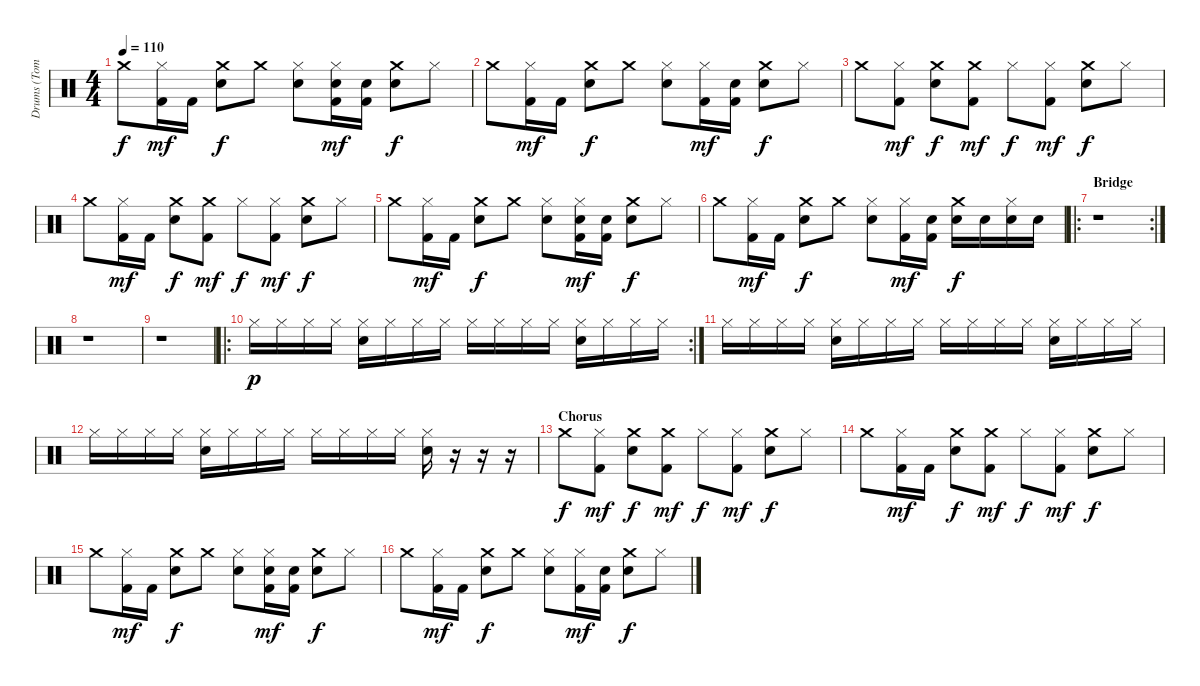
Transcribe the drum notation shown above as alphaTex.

\track ("Drums (Tomate)" "Drums (Tom") {instrument percussion}
\staff {score}
\articulation defaults
\ts (4 4)
\tempo 110
\clef neutral
\ks c "Crash medium (hit)".8{dy f}
("Hi-Hat (closed)" "Kick (hit) 2").16{dy mf} "Kick (hit) 2".16 ("Crash medium (hit)" "Electric Snare (hit)").8{dy f} "Crash medium (hit)".8 ("Hi-Hat (closed)" "Electric Snare (hit)").8 ("Hi-Hat (closed)" "Electric Snare (hit)" "Kick (hit) 2").16{dy mf} ("Electric Snare (hit)" "Kick (hit) 2").16 ("Crash medium (hit)" "Electric Snare (hit)").8{dy f} "Hi-Hat (closed)".8 |
"Crash medium (hit)".8 ("Hi-Hat (closed)" "Kick (hit) 2").16{dy mf} "Kick (hit) 2".16 ("Crash medium (hit)" "Electric Snare (hit)").8{dy f} "Crash medium (hit)".8 ("Hi-Hat (closed)" "Electric Snare (hit)").8 ("Hi-Hat (closed)" "Kick (hit) 2").16{dy mf} ("Electric Snare (hit)" "Kick (hit) 2").16 ("Crash medium (hit)" "Electric Snare (hit)").8{dy f} "Hi-Hat (closed)".8 |
"Crash medium (hit)".8 ("Hi-Hat (closed)" "Kick (hit) 2").8{dy mf} ("Crash medium (hit)" "Electric Snare (hit)").8{dy f} ("Crash medium (hit)" "Kick (hit) 2").8{dy mf} "Hi-Hat (closed)".8{dy f} ("Hi-Hat (closed)" "Kick (hit) 2").8{dy mf} ("Crash medium (hit)" "Electric Snare (hit)").8{dy f} "Hi-Hat (closed)".8 |
"Crash medium (hit)".8 ("Hi-Hat (closed)" "Kick (hit) 2").16{dy mf} "Kick (hit) 2".16 ("Crash medium (hit)" "Electric Snare (hit)").8{dy f} ("Crash medium (hit)" "Kick (hit) 2").8{dy mf} "Hi-Hat (closed)".8{dy f} ("Hi-Hat (closed)" "Kick (hit) 2").8{dy mf} ("Crash medium (hit)" "Electric Snare (hit)").8{dy f} "Hi-Hat (closed)".8 |
"Crash medium (hit)".8 ("Hi-Hat (closed)" "Kick (hit) 2").16{dy mf} "Kick (hit) 2".16 ("Crash medium (hit)" "Electric Snare (hit)").8{dy f} "Crash medium (hit)".8 ("Hi-Hat (closed)" "Electric Snare (hit)").8 ("Hi-Hat (closed)" "Electric Snare (hit)" "Kick (hit) 2").16{dy mf} ("Electric Snare (hit)" "Kick (hit) 2").16 ("Crash medium (hit)" "Electric Snare (hit)").8{dy f} "Hi-Hat (closed)".8 |
"Crash medium (hit)".8 ("Hi-Hat (closed)" "Kick (hit) 2").16{dy mf} "Kick (hit) 2".16 ("Crash medium (hit)" "Electric Snare (hit)").8{dy f} "Crash medium (hit)".8 ("Hi-Hat (closed)" "Electric Snare (hit)").8 ("Hi-Hat (closed)" "Kick (hit) 2").16{dy mf} ("Electric Snare (hit)" "Kick (hit) 2").16 ("Crash medium (hit)" "Electric Snare (hit)").16{dy f} "Electric Snare (hit)".16 ("Hi-Hat (closed)" "Electric Snare (hit)").16 "Electric Snare (hit)".16 |
\ro
\rc 2
\section ("" "Bridge")
r.1 |
r.1 |
r.1 |
\ro
\rc 2 "Hi-Hat (closed)".16{dy p} "Hi-Hat (closed)".16 "Hi-Hat (closed)".16 "Hi-Hat (closed)".16
("Electric Snare (hit)" "Hi-Hat (closed)").16 "Hi-Hat (closed)".16 "Hi-Hat (closed)".16 "Hi-Hat (closed)".16 "Hi-Hat (closed)".16 "Hi-Hat (closed)".16 "Hi-Hat (closed)".16 "Hi-Hat (closed)".16 ("Electric Snare (hit)" "Hi-Hat (closed)").16 "Hi-Hat (closed)".16 "Hi-Hat (closed)".16 "Hi-Hat (closed)".16 |
"Hi-Hat (closed)".16 "Hi-Hat (closed)".16 "Hi-Hat (closed)".16 "Hi-Hat (closed)".16 ("Electric Snare (hit)" "Hi-Hat (closed)").16 "Hi-Hat (closed)".16 "Hi-Hat (closed)".16 "Hi-Hat (closed)".16 "Hi-Hat (closed)".16 "Hi-Hat (closed)".16 "Hi-Hat (closed)".16 "Hi-Hat (closed)".16 ("Electric Snare (hit)" "Hi-Hat (closed)").16 "Hi-Hat (closed)".16 "Hi-Hat (closed)".16 "Hi-Hat (closed)".16 |
"Hi-Hat (closed)".16 "Hi-Hat (closed)".16 "Hi-Hat (closed)".16 "Hi-Hat (closed)".16 ("Electric Snare (hit)" "Hi-Hat (closed)").16 "Hi-Hat (closed)".16 "Hi-Hat (closed)".16 "Hi-Hat (closed)".16 "Hi-Hat (closed)".16 "Hi-Hat (closed)".16 "Hi-Hat (closed)".16 "Hi-Hat (closed)".16 ("Electric Snare (hit)" "Hi-Hat (closed)").16 r.16 r.16 r.16 |
\section ("" "Chorus")
"Crash medium (hit)".8{dy f} ("Hi-Hat (closed)" "Kick (hit) 2").8{dy mf} ("Crash medium (hit)" "Electric Snare (hit)").8{dy f} ("Crash medium (hit)" "Kick (hit) 2").8{dy mf} "Hi-Hat (closed)".8{dy f} ("Hi-Hat (closed)" "Kick (hit) 2").8{dy mf} ("Crash medium (hit)" "Electric Snare (hit)").8{dy f} "Hi-Hat (closed)".8 |
"Crash medium (hit)".8 ("Hi-Hat (closed)" "Kick (hit) 2").16{dy mf} "Kick (hit) 2".16 ("Crash medium (hit)" "Electric Snare (hit)").8{dy f} ("Crash medium (hit)" "Kick (hit) 2").8{dy mf} "Hi-Hat (closed)".8{dy f} ("Hi-Hat (closed)" "Kick (hit) 2").8{dy mf} ("Crash medium (hit)" "Electric Snare (hit)").8{dy f} "Hi-Hat (closed)".8 |
"Crash medium (hit)".8 ("Hi-Hat (closed)" "Kick (hit) 2").16{dy mf} "Kick (hit) 2".16 ("Crash medium (hit)" "Electric Snare (hit)").8{dy f} "Crash medium (hit)".8 ("Hi-Hat (closed)" "Electric Snare (hit)").8 ("Hi-Hat (closed)" "Electric Snare (hit)" "Kick (hit) 2").16{dy mf} ("Electric Snare (hit)" "Kick (hit) 2").16 ("Crash medium (hit)" "Electric Snare (hit)").8{dy f} "Hi-Hat (closed)".8 |
"Crash medium (hit)".8 ("Hi-Hat (closed)" "Kick (hit) 2").16{dy mf} "Kick (hit) 2".16 ("Crash medium (hit)" "Electric Snare (hit)").8{dy f} "Crash medium (hit)".8 ("Hi-Hat (closed)" "Electric Snare (hit)").8 ("Hi-Hat (closed)" "Kick (hit) 2").16{dy mf} ("Electric Snare (hit)" "Kick (hit) 2").16 ("Crash medium (hit)" "Electric Snare (hit)").8{dy f} "Hi-Hat (closed)".8
